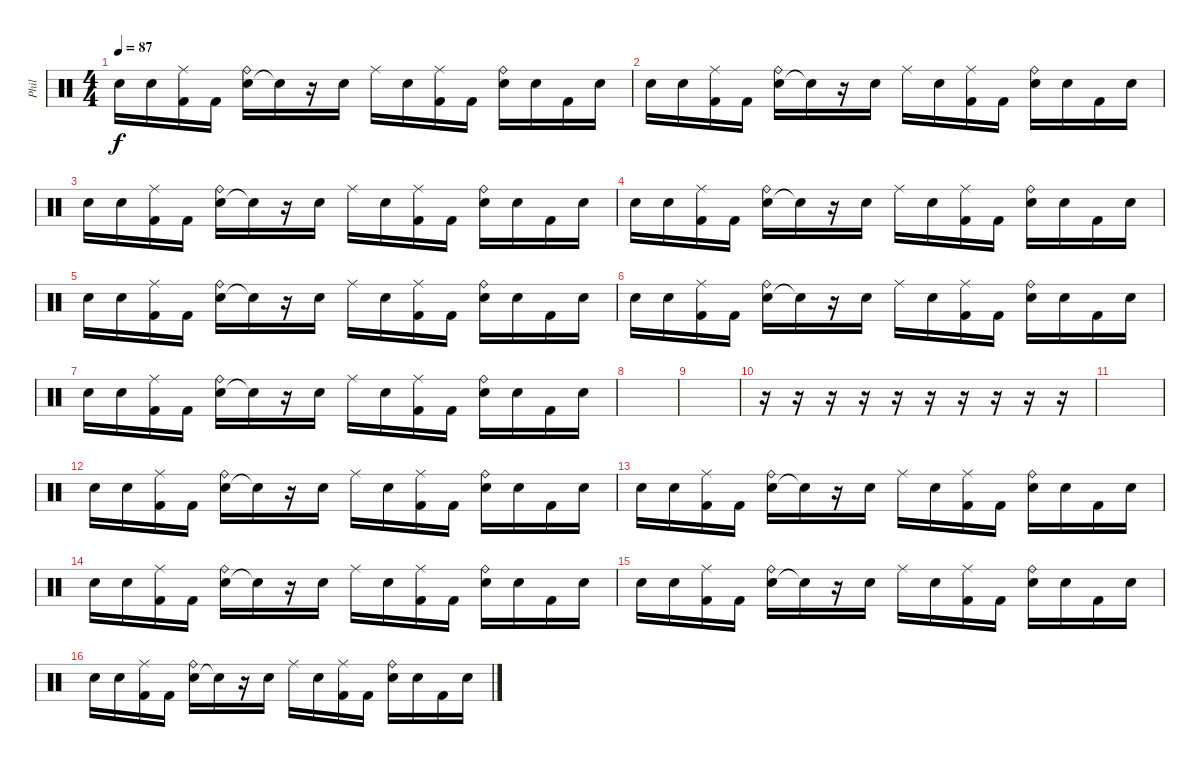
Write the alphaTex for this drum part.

\track ("Phil" "Phil") {instrument percussion}
\staff {score}
\articulation defaults
\ts (4 4)
\tempo 87
\clef neutral
\ks c "Snare (hit) 2".16{dy f} "Snare (hit) 2".16
("Ride (middle)" "Kick (hit) 2").16 "Kick (hit) 2".16 ("Snare (hit) 2" "Ride (bell)").16 "Snare (hit)"{t}.16 r.16 "Snare (hit) 2".16 "Ride (middle)".16 "Snare (hit) 2".16 ("Ride (middle)" "Kick (hit) 2").16 "Kick (hit) 2".16 ("Snare (hit) 2" "Ride (bell)").16 "Snare (hit) 2".16 "Kick (hit) 2".16 "Snare (hit) 2".16 |
"Snare (hit) 2".16 "Snare (hit) 2".16 ("Ride (middle)" "Kick (hit) 2").16 "Kick (hit) 2".16 ("Snare (hit) 2" "Ride (bell)").16 "Snare (hit)"{t}.16 r.16 "Snare (hit) 2".16 "Ride (middle)".16 "Snare (hit) 2".16 ("Ride (middle)" "Kick (hit) 2").16 "Kick (hit) 2".16 ("Snare (hit) 2" "Ride (bell)").16 "Snare (hit) 2".16 "Kick (hit) 2".16 "Snare (hit) 2".16 |
"Snare (hit) 2".16 "Snare (hit) 2".16 ("Ride (middle)" "Kick (hit) 2").16 "Kick (hit) 2".16 ("Snare (hit) 2" "Ride (bell)").16 "Snare (hit)"{t}.16 r.16 "Snare (hit) 2".16 "Ride (middle)".16 "Snare (hit) 2".16 ("Ride (middle)" "Kick (hit) 2").16 "Kick (hit) 2".16 ("Snare (hit) 2" "Ride (bell)").16 "Snare (hit) 2".16 "Kick (hit) 2".16 "Snare (hit) 2".16 |
"Snare (hit) 2".16 "Snare (hit) 2".16 ("Ride (middle)" "Kick (hit) 2").16 "Kick (hit) 2".16 ("Snare (hit) 2" "Ride (bell)").16 "Snare (hit)"{t}.16 r.16 "Snare (hit) 2".16 "Ride (middle)".16 "Snare (hit) 2".16 ("Ride (middle)" "Kick (hit) 2").16 "Kick (hit) 2".16 ("Snare (hit) 2" "Ride (bell)").16 "Snare (hit) 2".16 "Kick (hit) 2".16 "Snare (hit) 2".16 |
"Snare (hit) 2".16 "Snare (hit) 2".16 ("Ride (middle)" "Kick (hit) 2").16 "Kick (hit) 2".16 ("Snare (hit) 2" "Ride (bell)").16 "Snare (hit)"{t}.16 r.16 "Snare (hit) 2".16 "Ride (middle)".16 "Snare (hit) 2".16 ("Ride (middle)" "Kick (hit) 2").16 "Kick (hit) 2".16 ("Snare (hit) 2" "Ride (bell)").16 "Snare (hit) 2".16 "Kick (hit) 2".16 "Snare (hit) 2".16 |
"Snare (hit) 2".16 "Snare (hit) 2".16 ("Ride (middle)" "Kick (hit) 2").16 "Kick (hit) 2".16 ("Snare (hit) 2" "Ride (bell)").16 "Snare (hit)"{t}.16 r.16 "Snare (hit) 2".16 "Ride (middle)".16 "Snare (hit) 2".16 ("Ride (middle)" "Kick (hit) 2").16 "Kick (hit) 2".16 ("Snare (hit) 2" "Ride (bell)").16 "Snare (hit) 2".16 "Kick (hit) 2".16 "Snare (hit) 2".16 |
"Snare (hit) 2".16 "Snare (hit) 2".16 ("Ride (middle)" "Kick (hit) 2").16 "Kick (hit) 2".16 ("Snare (hit) 2" "Ride (bell)").16 "Snare (hit)"{t}.16 r.16 "Snare (hit) 2".16 "Ride (middle)".16 "Snare (hit) 2".16 ("Ride (middle)" "Kick (hit) 2").16 "Kick (hit) 2".16 ("Snare (hit) 2" "Ride (bell)").16 "Snare (hit) 2".16 "Kick (hit) 2".16 "Snare (hit) 2".16 |
|
|
r.16 r.16 r.16 r.16 r.16 r.16 r.16 r.16 r.16 r.16 |
|
"Snare (hit) 2".16 "Snare (hit) 2".16 ("Ride (middle)" "Kick (hit) 2").16 "Kick (hit) 2".16 ("Snare (hit) 2" "Ride (bell)").16 "Snare (hit)"{t}.16 r.16 "Snare (hit) 2".16 "Ride (middle)".16 "Snare (hit) 2".16 ("Ride (middle)" "Kick (hit) 2").16 "Kick (hit) 2".16 ("Snare (hit) 2" "Ride (bell)").16 "Snare (hit) 2".16 "Kick (hit) 2".16 "Snare (hit) 2".16 |
"Snare (hit) 2".16 "Snare (hit) 2".16 ("Ride (middle)" "Kick (hit) 2").16 "Kick (hit) 2".16 ("Snare (hit) 2" "Ride (bell)").16 "Snare (hit)"{t}.16 r.16 "Snare (hit) 2".16 "Ride (middle)".16 "Snare (hit) 2".16 ("Ride (middle)" "Kick (hit) 2").16 "Kick (hit) 2".16 ("Snare (hit) 2" "Ride (bell)").16 "Snare (hit) 2".16 "Kick (hit) 2".16 "Snare (hit) 2".16 |
"Snare (hit) 2".16 "Snare (hit) 2".16 ("Ride (middle)" "Kick (hit) 2").16 "Kick (hit) 2".16 ("Snare (hit) 2" "Ride (bell)").16 "Snare (hit)"{t}.16 r.16 "Snare (hit) 2".16 "Ride (middle)".16 "Snare (hit) 2".16 ("Ride (middle)" "Kick (hit) 2").16 "Kick (hit) 2".16 ("Snare (hit) 2" "Ride (bell)").16 "Snare (hit) 2".16 "Kick (hit) 2".16 "Snare (hit) 2".16 |
"Snare (hit) 2".16 "Snare (hit) 2".16 ("Ride (middle)" "Kick (hit) 2").16 "Kick (hit) 2".16 ("Snare (hit) 2" "Ride (bell)").16 "Snare (hit)"{t}.16 r.16 "Snare (hit) 2".16 "Ride (middle)".16 "Snare (hit) 2".16 ("Ride (middle)" "Kick (hit) 2").16 "Kick (hit) 2".16 ("Snare (hit) 2" "Ride (bell)").16 "Snare (hit) 2".16 "Kick (hit) 2".16 "Snare (hit) 2".16 |
"Snare (hit) 2".16 "Snare (hit) 2".16 ("Ride (middle)" "Kick (hit) 2").16 "Kick (hit) 2".16 ("Snare (hit) 2" "Ride (bell)").16 "Snare (hit)"{t}.16 r.16 "Snare (hit) 2".16 "Ride (middle)".16 "Snare (hit) 2".16 ("Ride (middle)" "Kick (hit) 2").16 "Kick (hit) 2".16 ("Snare (hit) 2" "Ride (bell)").16 "Snare (hit) 2".16 "Kick (hit) 2".16 "Snare (hit) 2".16
